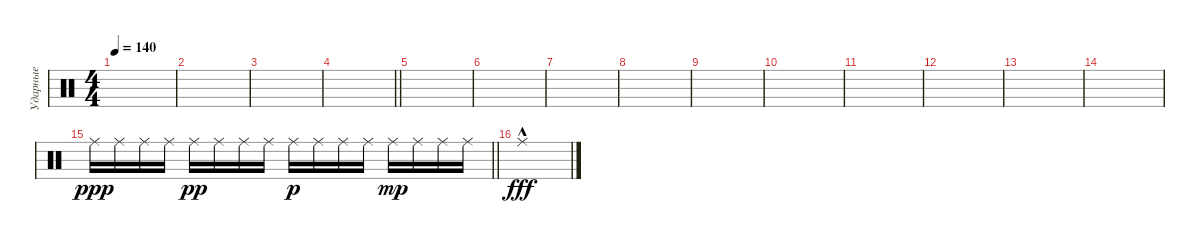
\track ("Ударные" "Ударные") {instrument percussion}
\staff {score}
\articulation defaults
\ts (4 4)
\tempo 140
\clef neutral
\ks c
|
|
|
\barLineRight lightlight
|
|
|
|
|
|
|
|
|
|
|
\barLineRight lightlight "Ride (middle)".16{dy ppp} "Ride (middle)".16 "Ride (middle)".16 "Ride (middle)".16 "Ride (middle)".16{dy pp} "Ride (middle)".16 "Ride (middle)".16 "Ride (middle)".16 "Ride (middle)".16{dy p} "Ride (middle)".16 "Ride (middle)".16 "Ride (middle)".16 "Ride (middle)".16{dy mp} "Ride (middle)".16 "Ride (middle)".16 "Ride (middle)".16
|
"Ride (middle)"{hac}.1{dy fff}
